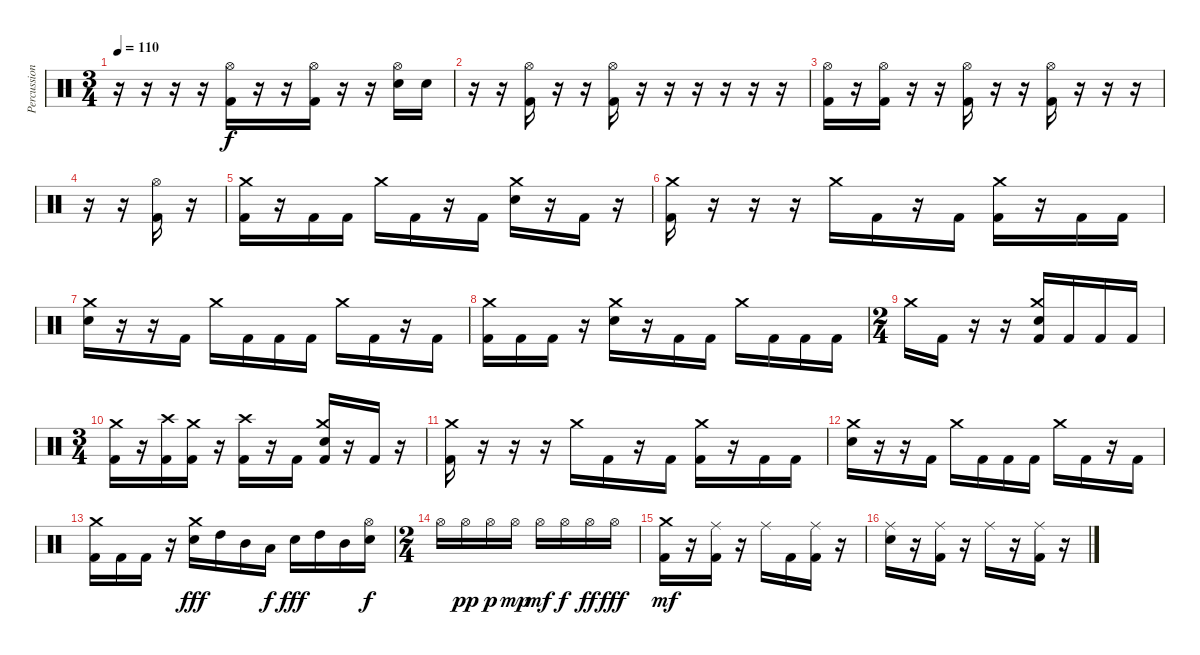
\track ("Percussion" "Percussion") {instrument percussion}
\staff {score}
\articulation defaults
\ts (3 4)
\tempo 110
\clef neutral
\ks c
r.16{dy f} r.16 r.16 r.16 ("Hi-Hat (open)" "Kick (hit) 2").16 r.16 r.16 ("Hi-Hat (open)" "Kick (hit) 2").16 r.16 r.16 ("Hi-Hat (open)" "Electric Snare (hit)").16 "Electric Snare (hit)".16 |
r.16 r.16 ("Hi-Hat (open)" "Kick (hit) 2").16 r.16 r.16 ("Hi-Hat (open)" "Kick (hit) 2").16 r.16 r.16 r.16 r.16 r.16 r.16 |
("Hi-Hat (open)" "Kick (hit) 2").16 r.16 ("Hi-Hat (open)" "Kick (hit) 2").16 r.16 r.16 ("Hi-Hat (open)" "Kick (hit) 2").16 r.16 r.16 ("Hi-Hat (open)" "Kick (hit) 2").16 r.16 r.16 r.16 |
r.16 r.16 ("Hi-Hat (open)" "Kick (hit) 2").16 r.16 |
("Crash medium (hit)" "Kick (hit) 2").16 r.16 "Kick (hit) 2".16 "Kick (hit) 2".16 "Crash medium (hit)".16 "Kick (hit) 2".16 r.16 "Kick (hit) 2".16 ("Crash medium (hit)" "Snare (hit) 2").16 r.16 "Kick (hit) 2".16 r.16 |
("Crash medium (hit)" "Kick (hit) 2").16 r.16 r.16 r.16 "Crash medium (hit)".16 "Kick (hit) 2".16 r.16 "Kick (hit) 2".16 ("Crash medium (hit)" "Kick (hit) 2").16 r.16 "Kick (hit) 2".16 "Kick (hit) 2".16 |
("Crash medium (hit)" "Snare (hit) 2").16 r.16 r.16 "Kick (hit) 2".16 "Crash medium (hit)".16 "Kick (hit) 2".16 "Kick (hit) 2".16 "Kick (hit) 2".16 "Crash medium (hit)".16 "Kick (hit) 2".16 r.16 "Kick (hit) 2".16 |
("Crash medium (hit)" "Kick (hit) 2").16 "Kick (hit) 2".16 "Kick (hit) 2".16 r.16 ("Crash medium (hit)" "Snare (hit) 2").16 r.16 "Kick (hit) 2".16 "Kick (hit) 2".16 "Crash medium (hit)".16 "Kick (hit) 2".16 "Kick (hit) 2".16 "Kick (hit) 2".16 |
\ts (2 4)
"Crash medium (hit)".16 "Kick (hit) 2".16 r.16 r.16 ("Crash medium (hit)" "Snare (hit) 2" "Kick (hit) 2").16 "Kick (hit) 2".16 "Kick (hit) 2".16 "Kick (hit) 2".16 |
\ts (3 4)
("Crash medium (hit)" "Kick (hit) 2").16 r.16 ("Crash high (hit)" "Kick (hit) 2").16 ("Crash medium (hit)" "Kick (hit) 2").16 r.16 ("Crash high (hit)" "Kick (hit) 2").16 r.16 "Kick (hit) 2".16 ("Crash medium (hit)" "Snare (hit) 2" "Kick (hit) 2").16 r.16 "Kick (hit) 2".16 r.16 |
("Crash medium (hit)" "Kick (hit) 2").16 r.16 r.16 r.16 "Crash medium (hit)".16 "Kick (hit) 2".16 r.16 "Kick (hit) 2".16 ("Crash medium (hit)" "Kick (hit) 2").16 r.16 "Kick (hit) 2".16 "Kick (hit) 2".16 |
("Crash medium (hit)" "Snare (hit) 2").16 r.16 r.16 "Kick (hit) 2".16 "Crash medium (hit)".16 "Kick (hit) 2".16 "Kick (hit) 2".16 "Kick (hit) 2".16 "Crash medium (hit)".16 "Kick (hit) 2".16 r.16 "Kick (hit) 2".16 |
("Crash medium (hit)" "Kick (hit) 2").16 "Kick (hit) 2".16 "Kick (hit) 2".16 r.16 ("Crash medium (hit)" "Snare (hit) 2").16{dy fff} "High Tom (hit)".16 "Mid Tom (hit)".16 "Low Tom (hit)".16{dy f} "Snare (hit) 2".16{dy fff} "High Tom (hit)".16 "Mid Tom (hit)".16 ("Hi-Hat (open)" "Snare (hit) 2").16{dy f} |
\ts (2 4)
"Hi-Hat (open)".16 "Hi-Hat (open)".16{dy pp} "Hi-Hat (open)".16{dy p} "Hi-Hat (open)".16{dy mp} "Hi-Hat (open)".16{dy mf} "Hi-Hat (open)".16{dy f} "Hi-Hat (open)".16{dy ff} "Hi-Hat (open)".16{dy fff} |
("Crash medium (hit)" "Kick (hit) 2").16{dy mf} r.16 ("Ride (middle)" "Kick (hit) 2").16 r.16 "Ride (middle)".16 "Kick (hit) 2".16 ("Ride (middle)" "Kick (hit) 2").16 r.16 |
("Ride (middle)" "Snare (hit) 2").16 r.16 ("Ride (middle)" "Kick (hit) 2").16 r.16 "Ride (middle)".16 r.16 ("Ride (middle)" "Kick (hit) 2").16 r.16
